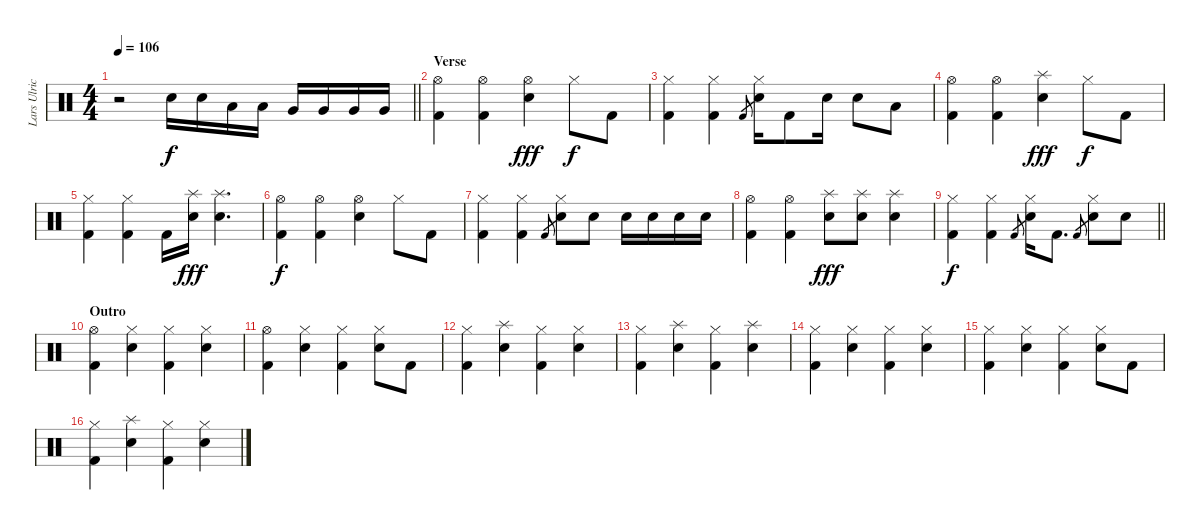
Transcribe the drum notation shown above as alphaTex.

\track ("Lars Ulrich" "Lars Ulric") {instrument percussion}
\staff {score}
\articulation defaults
\ts (4 4)
\tempo 106
\clef neutral
\barLineRight lightlight
\ks c
r.2{dy f} "Electric Snare (hit)".16 "Electric Snare (hit)".16 "Low Tom (hit)".16 "Low Tom (hit)".16 "Very Low Tom (hit)".16 "Very Low Tom (hit)".16 "Very Low Tom (hit)".16 "Very Low Tom (hit)".16 |
\section ("" "Verse")
("Hi-Hat (open)" "Kick (hit) 2").4 ("Hi-Hat (open)" "Kick (hit) 2").4 ("Hi-Hat (open)" "Electric Snare (hit)").4{dy fff} "Hi-Hat (closed)".8{dy f} "Kick (hit) 2".8 |
("Hi-Hat (closed)" "Kick (hit) 2").4 ("Hi-Hat (closed)" "Kick (hit) 2").4 "Kick (hit) 2".8{gr} ("Hi-Hat (closed)" "Electric Snare (hit)").16 "Kick (hit) 2".8 "Electric Snare (hit)".16 "Electric Snare (hit)".8 "Low Tom (hit)".8 |
("Hi-Hat (open)" "Kick (hit) 2").4 ("Hi-Hat (open)" "Kick (hit) 2").4 ("Splash (hit)" "Electric Snare (hit)").4{dy fff} "Hi-Hat (closed)".8{dy f} "Kick (hit) 2".8 |
("Hi-Hat (closed)" "Kick (hit) 2").4 ("Hi-Hat (closed)" "Kick (hit) 2").4 "Kick (hit) 2".16 ("Splash (hit)" "Electric Snare (hit)").16{dy fff} ("Splash (hit)" "Electric Snare (hit)").4{d} |
("Hi-Hat (open)" "Kick (hit) 2").4{dy f} ("Hi-Hat (open)" "Kick (hit) 2").4 ("Hi-Hat (open)" "Electric Snare (hit)").4 "Hi-Hat (closed)".8 "Kick (hit) 2".8 |
("Hi-Hat (closed)" "Kick (hit) 2").4 ("Hi-Hat (closed)" "Kick (hit) 2").4 "Kick (hit) 2".8{gr} ("Hi-Hat (closed)" "Electric Snare (hit)").8 "Electric Snare (hit)".8 "Electric Snare (hit)".16 "Electric Snare (hit)".16 "Electric Snare (hit)".16 "Electric Snare (hit)".16 |
("Hi-Hat (open)" "Kick (hit) 2").4 ("Hi-Hat (open)" "Kick (hit) 2").4 ("Splash (hit)" "Electric Snare (hit)").8{dy fff} ("Splash (hit)" "Electric Snare (hit)").8 ("Splash (hit)" "Electric Snare (hit)").4 |
\barLineRight lightlight
("Hi-Hat (closed)" "Kick (hit) 2").4{dy f} ("Hi-Hat (closed)" "Kick (hit) 2").4 "Kick (hit) 2".8{gr} ("Hi-Hat (closed)" "Electric Snare (hit)").16 "Kick (hit) 2".8{d} "Kick (hit) 2".8{gr} ("Hi-Hat (closed)" "Electric Snare (hit)").8 "Electric Snare (hit)".8 |
\section ("" "Outro")
("Hi-Hat (open)" "Kick (hit) 2").4 ("Hi-Hat (closed)" "Electric Snare (hit)").4 ("Hi-Hat (closed)" "Kick (hit) 2").4 ("Hi-Hat (closed)" "Electric Snare (hit)").4 |
("Hi-Hat (open)" "Kick (hit) 2").4 ("Hi-Hat (closed)" "Electric Snare (hit)").4 ("Hi-Hat (closed)" "Kick (hit) 2").4 ("Hi-Hat (closed)" "Electric Snare (hit)").8 "Kick (hit) 2".8 |
("Hi-Hat (closed)" "Kick (hit) 2").4 ("Splash (hit)" "Electric Snare (hit)").4 ("Hi-Hat (closed)" "Kick (hit) 2").4 ("Hi-Hat (closed)" "Electric Snare (hit)").4 |
("Hi-Hat (closed)" "Kick (hit) 2").4 ("Splash (hit)" "Electric Snare (hit)").4 ("Hi-Hat (closed)" "Kick (hit) 2").4 ("Splash (hit)" "Electric Snare (hit)").4 |
("Hi-Hat (closed)" "Kick (hit) 2").4 ("Hi-Hat (closed)" "Electric Snare (hit)").4 ("Hi-Hat (closed)" "Kick (hit) 2").4 ("Hi-Hat (closed)" "Electric Snare (hit)").4 |
("Hi-Hat (closed)" "Kick (hit) 2").4 ("Hi-Hat (closed)" "Electric Snare (hit)").4 ("Hi-Hat (closed)" "Kick (hit) 2").4 ("Hi-Hat (closed)" "Electric Snare (hit)").8 "Kick (hit) 2".8 |
("Hi-Hat (closed)" "Kick (hit) 2").4 ("Splash (hit)" "Electric Snare (hit)").4 ("Hi-Hat (closed)" "Kick (hit) 2").4 ("Hi-Hat (closed)" "Electric Snare (hit)").4
